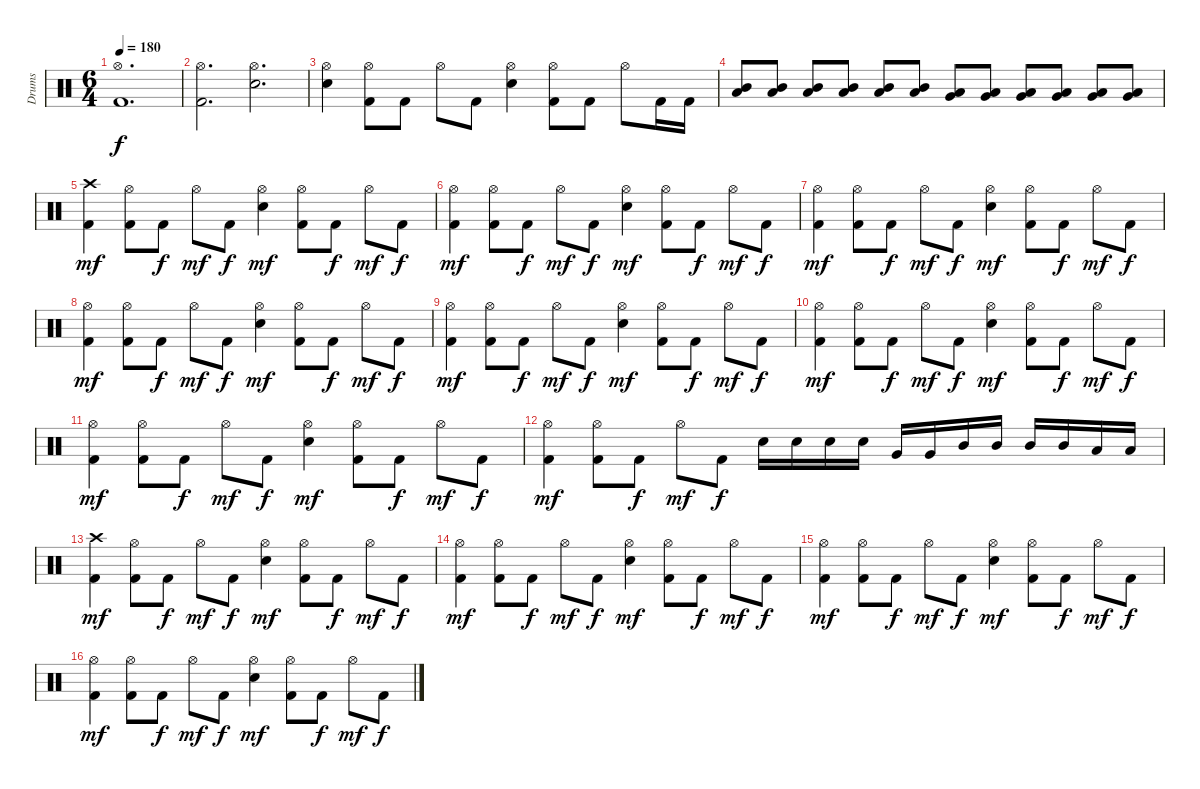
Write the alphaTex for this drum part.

\track ("Drums" "Drums") {instrument percussion}
\staff {score}
\articulation defaults
\ts (6 4)
\tempo 180
\clef neutral
\ks c
("Hi-Hat (open)" "Kick (hit) 2").1{d dy f} |
("Hi-Hat (open)" "Kick (hit) 2").2{d} ("Hi-Hat (open)" "Snare (hit) 2").2{d} |
("Hi-Hat (open)" "Snare (hit) 2").4 ("Hi-Hat (open)" "Kick (hit) 2").8 "Kick (hit) 2".8 "Hi-Hat (open)".8 "Kick (hit) 2".8 ("Hi-Hat (open)" "Snare (hit) 2").4 ("Hi-Hat (open)" "Kick (hit) 2").8 "Kick (hit) 2".8 "Hi-Hat (open)".8 "Kick (hit) 2".16 "Kick (hit) 2".16 |
("Mid Tom (hit)" "Low Tom (hit)").8 ("Mid Tom (hit)" "Low Tom (hit)").8 ("Mid Tom (hit)" "Low Tom (hit)").8 ("Mid Tom (hit)" "Low Tom (hit)").8 ("Mid Tom (hit)" "Low Tom (hit)").8 ("Mid Tom (hit)" "Low Tom (hit)").8 ("Low Tom (hit)" "Very Low Tom (hit)").8 ("Very Low Tom (hit)" "Low Floor Tom (hit)").8 ("Very Low Tom (hit)" "Low Floor Tom (hit)").8 ("Very Low Tom (hit)" "Low Floor Tom (hit)").8 ("Very Low Tom (hit)" "Low Floor Tom (hit)").8 ("Very Low Tom (hit)" "Low Floor Tom (hit)").8 |
("Crash high (hit)" "Kick (hit) 2").4{dy mf} ("Hi-Hat (open)" "Kick (hit) 2").8 "Kick (hit) 2".8{dy f} "Hi-Hat (open)".8{dy mf} "Kick (hit) 2".8{dy f} ("Hi-Hat (open)" "Snare (hit) 2").4{dy mf} ("Hi-Hat (open)" "Kick (hit) 2").8 "Kick (hit) 2".8{dy f} "Hi-Hat (open)".8{dy mf} "Kick (hit) 2".8{dy f} |
("Hi-Hat (open)" "Kick (hit) 2").4{dy mf} ("Hi-Hat (open)" "Kick (hit) 2").8 "Kick (hit) 2".8{dy f} "Hi-Hat (open)".8{dy mf} "Kick (hit) 2".8{dy f} ("Hi-Hat (open)" "Snare (hit) 2").4{dy mf} ("Hi-Hat (open)" "Kick (hit) 2").8 "Kick (hit) 2".8{dy f} "Hi-Hat (open)".8{dy mf} "Kick (hit) 2".8{dy f} |
("Hi-Hat (open)" "Kick (hit) 2").4{dy mf} ("Hi-Hat (open)" "Kick (hit) 2").8 "Kick (hit) 2".8{dy f} "Hi-Hat (open)".8{dy mf} "Kick (hit) 2".8{dy f} ("Hi-Hat (open)" "Snare (hit) 2").4{dy mf} ("Hi-Hat (open)" "Kick (hit) 2").8 "Kick (hit) 2".8{dy f} "Hi-Hat (open)".8{dy mf} "Kick (hit) 2".8{dy f} |
("Hi-Hat (open)" "Kick (hit) 2").4{dy mf} ("Hi-Hat (open)" "Kick (hit) 2").8 "Kick (hit) 2".8{dy f} "Hi-Hat (open)".8{dy mf} "Kick (hit) 2".8{dy f} ("Hi-Hat (open)" "Snare (hit) 2").4{dy mf} ("Hi-Hat (open)" "Kick (hit) 2").8 "Kick (hit) 2".8{dy f} "Hi-Hat (open)".8{dy mf} "Kick (hit) 2".8{dy f} |
("Hi-Hat (open)" "Kick (hit) 2").4{dy mf} ("Hi-Hat (open)" "Kick (hit) 2").8 "Kick (hit) 2".8{dy f} "Hi-Hat (open)".8{dy mf} "Kick (hit) 2".8{dy f} ("Hi-Hat (open)" "Snare (hit) 2").4{dy mf} ("Hi-Hat (open)" "Kick (hit) 2").8 "Kick (hit) 2".8{dy f} "Hi-Hat (open)".8{dy mf} "Kick (hit) 2".8{dy f} |
("Hi-Hat (open)" "Kick (hit) 2").4{dy mf} ("Hi-Hat (open)" "Kick (hit) 2").8 "Kick (hit) 2".8{dy f} "Hi-Hat (open)".8{dy mf} "Kick (hit) 2".8{dy f} ("Hi-Hat (open)" "Snare (hit) 2").4{dy mf} ("Hi-Hat (open)" "Kick (hit) 2").8 "Kick (hit) 2".8{dy f} "Hi-Hat (open)".8{dy mf} "Kick (hit) 2".8{dy f} |
("Hi-Hat (open)" "Kick (hit) 2").4{dy mf} ("Hi-Hat (open)" "Kick (hit) 2").8 "Kick (hit) 2".8{dy f} "Hi-Hat (open)".8{dy mf} "Kick (hit) 2".8{dy f} ("Hi-Hat (open)" "Snare (hit) 2").4{dy mf} ("Hi-Hat (open)" "Kick (hit) 2").8 "Kick (hit) 2".8{dy f} "Hi-Hat (open)".8{dy mf} "Kick (hit) 2".8{dy f} |
("Hi-Hat (open)" "Kick (hit) 2").4{dy mf} ("Hi-Hat (open)" "Kick (hit) 2").8 "Kick (hit) 2".8{dy f} "Hi-Hat (open)".8{dy mf} "Kick (hit) 2".8{dy f} "Snare (hit) 2".16 "Snare (hit) 2".16 "Snare (hit) 2".16 "Snare (hit) 2".16 "Very Low Tom (hit)".16 "Very Low Tom (hit)".16 "Mid Tom (hit)".16 "Mid Tom (hit)".16 "Mid Tom (hit)".16 "Mid Tom (hit)".16 "Low Floor Tom (hit)".16 "Low Floor Tom (hit)".16 |
("Crash high (hit)" "Kick (hit) 2").4{dy mf} ("Hi-Hat (open)" "Kick (hit) 2").8 "Kick (hit) 2".8{dy f} "Hi-Hat (open)".8{dy mf} "Kick (hit) 2".8{dy f} ("Hi-Hat (open)" "Snare (hit) 2").4{dy mf} ("Hi-Hat (open)" "Kick (hit) 2").8 "Kick (hit) 2".8{dy f} "Hi-Hat (open)".8{dy mf} "Kick (hit) 2".8{dy f} |
("Hi-Hat (open)" "Kick (hit) 2").4{dy mf} ("Hi-Hat (open)" "Kick (hit) 2").8 "Kick (hit) 2".8{dy f} "Hi-Hat (open)".8{dy mf} "Kick (hit) 2".8{dy f} ("Hi-Hat (open)" "Snare (hit) 2").4{dy mf} ("Hi-Hat (open)" "Kick (hit) 2").8 "Kick (hit) 2".8{dy f} "Hi-Hat (open)".8{dy mf} "Kick (hit) 2".8{dy f} |
("Hi-Hat (open)" "Kick (hit) 2").4{dy mf} ("Hi-Hat (open)" "Kick (hit) 2").8 "Kick (hit) 2".8{dy f} "Hi-Hat (open)".8{dy mf} "Kick (hit) 2".8{dy f} ("Hi-Hat (open)" "Snare (hit) 2").4{dy mf} ("Hi-Hat (open)" "Kick (hit) 2").8 "Kick (hit) 2".8{dy f} "Hi-Hat (open)".8{dy mf} "Kick (hit) 2".8{dy f} |
("Hi-Hat (open)" "Kick (hit) 2").4{dy mf} ("Hi-Hat (open)" "Kick (hit) 2").8 "Kick (hit) 2".8{dy f} "Hi-Hat (open)".8{dy mf} "Kick (hit) 2".8{dy f} ("Hi-Hat (open)" "Snare (hit) 2").4{dy mf} ("Hi-Hat (open)" "Kick (hit) 2").8 "Kick (hit) 2".8{dy f} "Hi-Hat (open)".8{dy mf} "Kick (hit) 2".8{dy f}
